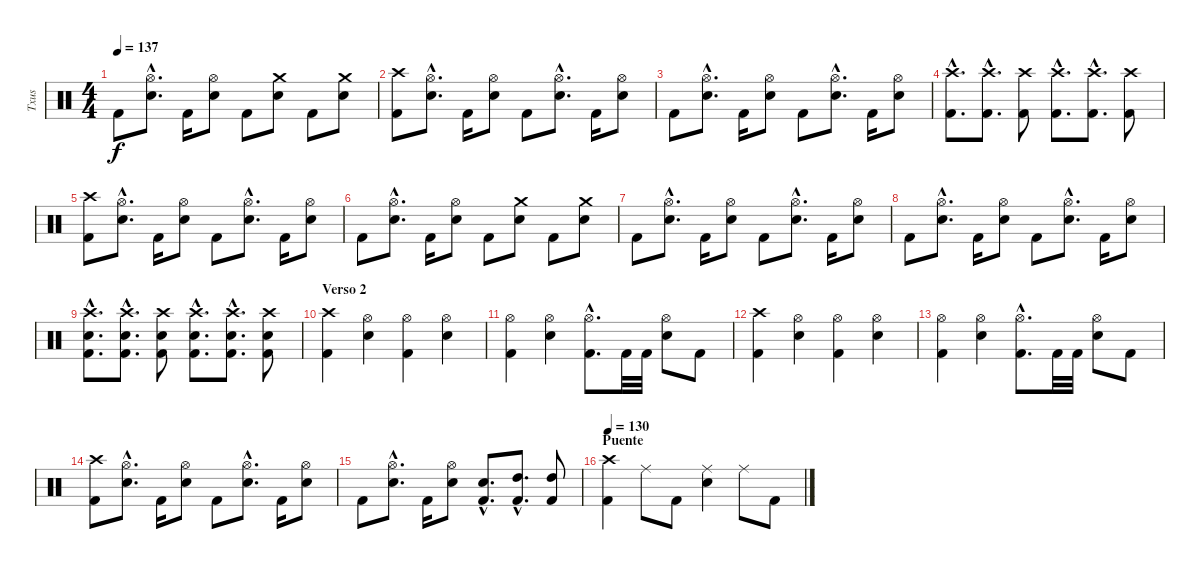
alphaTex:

\track ("Txus" "Txus") {instrument percussion}
\staff {score}
\articulation defaults
\ts (4 4)
\tempo 137
\clef neutral
\ks c "Kick (hit) 2".8{dy f}
("Electric Snare (hit)"{hac} "Hi-Hat (open)"{hac}).8{d} "Kick (hit) 2".16 ("Electric Snare (hit)" "Hi-Hat (open)").8 "Kick (hit) 2".8 ("Electric Snare (hit)" "Crash medium (hit)").8 "Kick (hit) 2".8 ("Electric Snare (hit)" "Crash medium (hit)").8 |
("Kick (hit) 2" "Crash high (hit)").8 ("Electric Snare (hit)"{hac} "Hi-Hat (open)"{hac}).8{d} "Kick (hit) 2".16 ("Electric Snare (hit)" "Hi-Hat (open)").8 "Kick (hit) 2".8 ("Electric Snare (hit)"{hac} "Hi-Hat (open)"{hac}).8{d} "Kick (hit) 2".16 ("Electric Snare (hit)" "Hi-Hat (open)").8 |
"Kick (hit) 2".8 ("Electric Snare (hit)"{hac} "Hi-Hat (open)"{hac}).8{d} "Kick (hit) 2".16 ("Electric Snare (hit)" "Hi-Hat (open)").8 "Kick (hit) 2".8 ("Electric Snare (hit)"{hac} "Hi-Hat (open)"{hac}).8{d} "Kick (hit) 2".16 ("Electric Snare (hit)" "Hi-Hat (open)").8 |
("Kick (hit) 2"{hac} "Crash high (hit)"{hac}).8{d} ("Kick (hit) 2"{hac} "Crash high (hit)"{hac}).8{d} ("Kick (hit) 2" "Crash high (hit)").8 ("Kick (hit) 2"{hac} "Crash high (hit)"{hac}).8{d} ("Kick (hit) 2"{hac} "Crash high (hit)"{hac}).8{d} ("Kick (hit) 2" "Crash high (hit)").8 |
("Kick (hit) 2" "Crash high (hit)").8 ("Electric Snare (hit)"{hac} "Hi-Hat (open)"{hac}).8{d} "Kick (hit) 2".16 ("Electric Snare (hit)" "Hi-Hat (open)").8 "Kick (hit) 2".8 ("Electric Snare (hit)"{hac} "Hi-Hat (open)"{hac}).8{d} "Kick (hit) 2".16 ("Electric Snare (hit)" "Hi-Hat (open)").8 |
"Kick (hit) 2".8 ("Electric Snare (hit)"{hac} "Hi-Hat (open)"{hac}).8{d} "Kick (hit) 2".16 ("Electric Snare (hit)" "Hi-Hat (open)").8 "Kick (hit) 2".8 ("Electric Snare (hit)" "Crash medium (hit)").8 "Kick (hit) 2".8 ("Electric Snare (hit)" "Crash medium (hit)").8 |
"Kick (hit) 2".8 ("Electric Snare (hit)"{hac} "Hi-Hat (open)"{hac}).8{d} "Kick (hit) 2".16 ("Electric Snare (hit)" "Hi-Hat (open)").8 "Kick (hit) 2".8 ("Electric Snare (hit)"{hac} "Hi-Hat (open)"{hac}).8{d} "Kick (hit) 2".16 ("Electric Snare (hit)" "Hi-Hat (open)").8 |
"Kick (hit) 2".8 ("Electric Snare (hit)"{hac} "Hi-Hat (open)"{hac}).8{d} "Kick (hit) 2".16 ("Electric Snare (hit)" "Hi-Hat (open)").8 "Kick (hit) 2".8 ("Electric Snare (hit)"{hac} "Hi-Hat (open)"{hac}).8{d} "Kick (hit) 2".16 ("Electric Snare (hit)" "Hi-Hat (open)").8 |
("Kick (hit) 2"{hac} "Electric Snare (hit)"{hac} "Crash high (hit)"{hac}).8{d} ("Kick (hit) 2"{hac} "Electric Snare (hit)"{hac} "Crash high (hit)"{hac}).8{d} ("Kick (hit) 2" "Electric Snare (hit)" "Crash high (hit)").8 ("Kick (hit) 2"{hac} "Electric Snare (hit)"{hac} "Crash high (hit)"{hac}).8{d} ("Kick (hit) 2"{hac} "Electric Snare (hit)"{hac} "Crash high (hit)"{hac}).8{d} ("Kick (hit) 2" "Electric Snare (hit)" "Crash high (hit)").8 |
\section ("" "Verso 2")
("Kick (hit) 2" "Crash high (hit)").4 ("Electric Snare (hit)" "Hi-Hat (open)").4 ("Kick (hit) 2" "Hi-Hat (open)").4 ("Electric Snare (hit)" "Hi-Hat (open)").4 |
("Kick (hit) 2" "Hi-Hat (open)").4 ("Electric Snare (hit)" "Hi-Hat (open)").4 ("Kick (hit) 2"{hac} "Hi-Hat (open)"{hac}).8{d} "Kick (hit) 2".32 "Kick (hit) 2".32 ("Electric Snare (hit)" "Hi-Hat (open)").8 "Kick (hit) 2".8 |
("Kick (hit) 2" "Crash high (hit)").4 ("Electric Snare (hit)" "Hi-Hat (open)").4 ("Kick (hit) 2" "Hi-Hat (open)").4 ("Electric Snare (hit)" "Hi-Hat (open)").4 |
("Kick (hit) 2" "Hi-Hat (open)").4 ("Electric Snare (hit)" "Hi-Hat (open)").4 ("Kick (hit) 2"{hac} "Hi-Hat (open)"{hac}).8{d} "Kick (hit) 2".32 "Kick (hit) 2".32 ("Electric Snare (hit)" "Hi-Hat (open)").8 "Kick (hit) 2".8 |
("Kick (hit) 2" "Crash high (hit)").8 ("Electric Snare (hit)"{hac} "Hi-Hat (open)"{hac}).8{d} "Kick (hit) 2".16 ("Electric Snare (hit)" "Hi-Hat (open)").8 "Kick (hit) 2".8 ("Electric Snare (hit)"{hac} "Hi-Hat (open)"{hac}).8{d} "Kick (hit) 2".16 ("Electric Snare (hit)" "Hi-Hat (open)").8 |
"Kick (hit) 2".8 ("Electric Snare (hit)"{hac} "Hi-Hat (open)"{hac}).8{d} "Kick (hit) 2".16 ("Electric Snare (hit)" "Hi-Hat (open)").8 ("Kick (hit) 2"{hac} "Electric Snare (hit)"{hac}).8{d} ("Kick (hit) 2"{hac} "High Tom (hit)"{hac}).8{d} ("Kick (hit) 2" "High Tom (hit)").8 |
\section ("" "Puente")
\tempo 130
("Kick (hit) 2" "Crash high (hit)").4{volume 12} "Ride (middle)".8 "Kick (hit) 2".8 ("Electric Snare (hit)" "Ride (middle)").4 "Ride (middle)".8 "Kick (hit) 2".8
